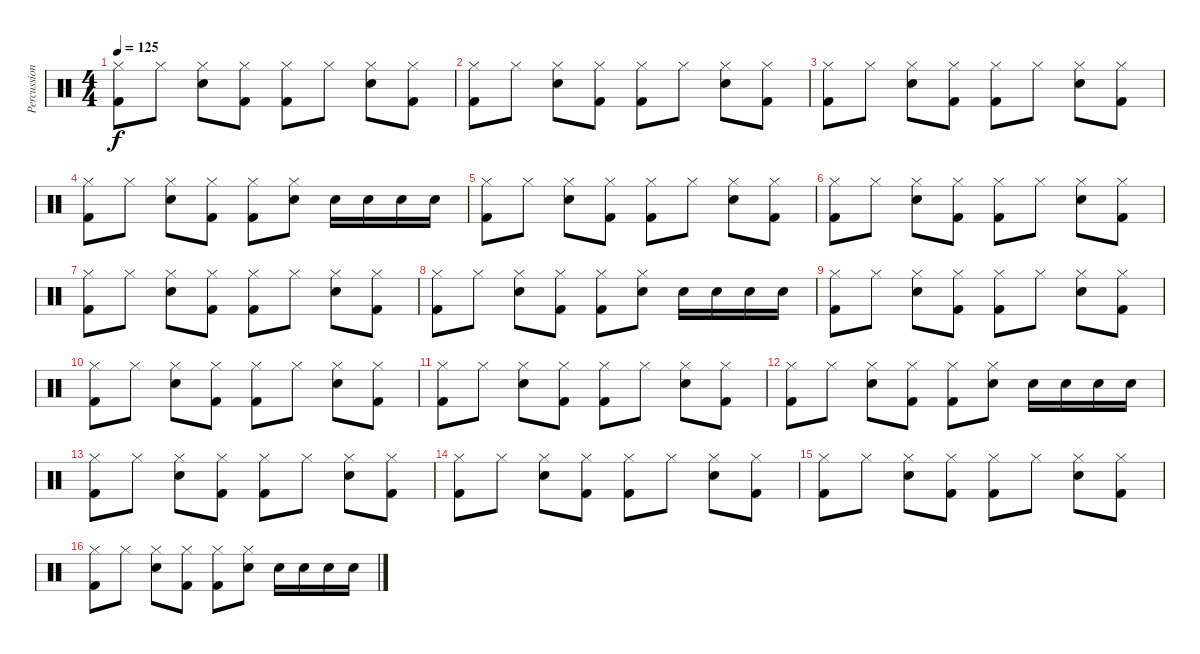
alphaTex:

\track ("Percussion" "Percussion") {instrument percussion}
\staff {score}
\articulation defaults
\ts (4 4)
\tempo 125
\clef neutral
\ks c
("Kick (hit) 2" "Hi-Hat (closed)").8{dy f} "Hi-Hat (closed)".8 ("Snare (hit) 2" "Hi-Hat (closed)").8 ("Kick (hit) 2" "Hi-Hat (closed)").8 ("Kick (hit) 2" "Hi-Hat (closed)").8 "Hi-Hat (closed)".8 ("Snare (hit) 2" "Hi-Hat (closed)").8 ("Kick (hit) 2" "Hi-Hat (closed)").8 |
("Kick (hit) 2" "Hi-Hat (closed)").8 "Hi-Hat (closed)".8 ("Snare (hit) 2" "Hi-Hat (closed)").8 ("Kick (hit) 2" "Hi-Hat (closed)").8 ("Kick (hit) 2" "Hi-Hat (closed)").8 "Hi-Hat (closed)".8 ("Snare (hit) 2" "Hi-Hat (closed)").8 ("Kick (hit) 2" "Hi-Hat (closed)").8 |
("Kick (hit) 2" "Hi-Hat (closed)").8 "Hi-Hat (closed)".8 ("Snare (hit) 2" "Hi-Hat (closed)").8 ("Kick (hit) 2" "Hi-Hat (closed)").8 ("Kick (hit) 2" "Hi-Hat (closed)").8 "Hi-Hat (closed)".8 ("Snare (hit) 2" "Hi-Hat (closed)").8 ("Kick (hit) 2" "Hi-Hat (closed)").8 |
("Kick (hit) 2" "Hi-Hat (closed)").8 "Hi-Hat (closed)".8 ("Snare (hit) 2" "Hi-Hat (closed)").8 ("Kick (hit) 2" "Hi-Hat (closed)").8 ("Kick (hit) 2" "Hi-Hat (closed)").8 ("Snare (hit) 2" "Hi-Hat (closed)").8 "Snare (hit) 2".16 "Snare (hit) 2".16 "Snare (hit) 2".16 "Snare (hit) 2".16 |
("Kick (hit) 2" "Hi-Hat (closed)").8 "Hi-Hat (closed)".8 ("Snare (hit) 2" "Hi-Hat (closed)").8 ("Kick (hit) 2" "Hi-Hat (closed)").8 ("Kick (hit) 2" "Hi-Hat (closed)").8 "Hi-Hat (closed)".8 ("Snare (hit) 2" "Hi-Hat (closed)").8 ("Kick (hit) 2" "Hi-Hat (closed)").8 |
("Kick (hit) 2" "Hi-Hat (closed)").8 "Hi-Hat (closed)".8 ("Snare (hit) 2" "Hi-Hat (closed)").8 ("Kick (hit) 2" "Hi-Hat (closed)").8 ("Kick (hit) 2" "Hi-Hat (closed)").8 "Hi-Hat (closed)".8 ("Snare (hit) 2" "Hi-Hat (closed)").8 ("Kick (hit) 2" "Hi-Hat (closed)").8 |
("Kick (hit) 2" "Hi-Hat (closed)").8 "Hi-Hat (closed)".8 ("Snare (hit) 2" "Hi-Hat (closed)").8 ("Kick (hit) 2" "Hi-Hat (closed)").8 ("Kick (hit) 2" "Hi-Hat (closed)").8 "Hi-Hat (closed)".8 ("Snare (hit) 2" "Hi-Hat (closed)").8 ("Kick (hit) 2" "Hi-Hat (closed)").8 |
("Kick (hit) 2" "Hi-Hat (closed)").8 "Hi-Hat (closed)".8 ("Snare (hit) 2" "Hi-Hat (closed)").8 ("Kick (hit) 2" "Hi-Hat (closed)").8 ("Kick (hit) 2" "Hi-Hat (closed)").8 ("Snare (hit) 2" "Hi-Hat (closed)").8 "Snare (hit) 2".16 "Snare (hit) 2".16 "Snare (hit) 2".16 "Snare (hit) 2".16 |
("Kick (hit) 2" "Hi-Hat (closed)").8 "Hi-Hat (closed)".8 ("Snare (hit) 2" "Hi-Hat (closed)").8 ("Kick (hit) 2" "Hi-Hat (closed)").8 ("Kick (hit) 2" "Hi-Hat (closed)").8 "Hi-Hat (closed)".8 ("Snare (hit) 2" "Hi-Hat (closed)").8 ("Kick (hit) 2" "Hi-Hat (closed)").8 |
("Kick (hit) 2" "Hi-Hat (closed)").8 "Hi-Hat (closed)".8 ("Snare (hit) 2" "Hi-Hat (closed)").8 ("Kick (hit) 2" "Hi-Hat (closed)").8 ("Kick (hit) 2" "Hi-Hat (closed)").8 "Hi-Hat (closed)".8 ("Snare (hit) 2" "Hi-Hat (closed)").8 ("Kick (hit) 2" "Hi-Hat (closed)").8 |
("Kick (hit) 2" "Hi-Hat (closed)").8 "Hi-Hat (closed)".8 ("Snare (hit) 2" "Hi-Hat (closed)").8 ("Kick (hit) 2" "Hi-Hat (closed)").8 ("Kick (hit) 2" "Hi-Hat (closed)").8 "Hi-Hat (closed)".8 ("Snare (hit) 2" "Hi-Hat (closed)").8 ("Kick (hit) 2" "Hi-Hat (closed)").8 |
("Kick (hit) 2" "Hi-Hat (closed)").8 "Hi-Hat (closed)".8 ("Snare (hit) 2" "Hi-Hat (closed)").8 ("Kick (hit) 2" "Hi-Hat (closed)").8 ("Kick (hit) 2" "Hi-Hat (closed)").8 ("Snare (hit) 2" "Hi-Hat (closed)").8 "Snare (hit) 2".16 "Snare (hit) 2".16 "Snare (hit) 2".16 "Snare (hit) 2".16 |
("Kick (hit) 2" "Hi-Hat (closed)").8 "Hi-Hat (closed)".8 ("Snare (hit) 2" "Hi-Hat (closed)").8 ("Kick (hit) 2" "Hi-Hat (closed)").8 ("Kick (hit) 2" "Hi-Hat (closed)").8 "Hi-Hat (closed)".8 ("Snare (hit) 2" "Hi-Hat (closed)").8 ("Kick (hit) 2" "Hi-Hat (closed)").8 |
("Kick (hit) 2" "Hi-Hat (closed)").8 "Hi-Hat (closed)".8 ("Snare (hit) 2" "Hi-Hat (closed)").8 ("Kick (hit) 2" "Hi-Hat (closed)").8 ("Kick (hit) 2" "Hi-Hat (closed)").8 "Hi-Hat (closed)".8 ("Snare (hit) 2" "Hi-Hat (closed)").8 ("Kick (hit) 2" "Hi-Hat (closed)").8 |
("Kick (hit) 2" "Hi-Hat (closed)").8 "Hi-Hat (closed)".8 ("Snare (hit) 2" "Hi-Hat (closed)").8 ("Kick (hit) 2" "Hi-Hat (closed)").8 ("Kick (hit) 2" "Hi-Hat (closed)").8 "Hi-Hat (closed)".8 ("Snare (hit) 2" "Hi-Hat (closed)").8 ("Kick (hit) 2" "Hi-Hat (closed)").8 |
("Kick (hit) 2" "Hi-Hat (closed)").8 "Hi-Hat (closed)".8 ("Snare (hit) 2" "Hi-Hat (closed)").8 ("Kick (hit) 2" "Hi-Hat (closed)").8 ("Kick (hit) 2" "Hi-Hat (closed)").8 ("Snare (hit) 2" "Hi-Hat (closed)").8 "Snare (hit) 2".16 "Snare (hit) 2".16 "Snare (hit) 2".16 "Snare (hit) 2".16
